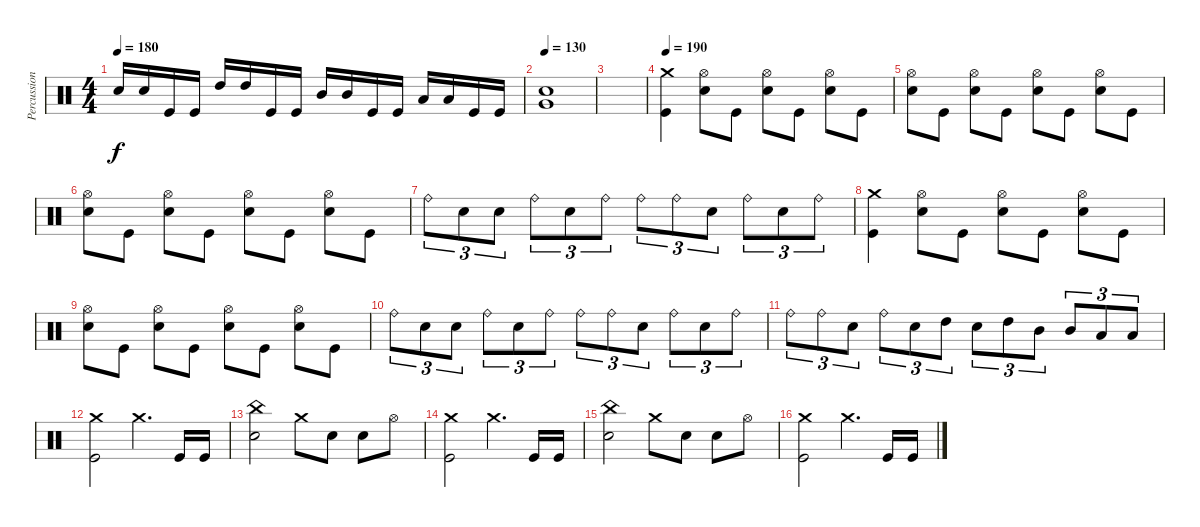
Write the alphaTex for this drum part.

\track ("Percussion" "Percussion") {instrument percussion}
\staff {score}
\articulation defaults
\ts (4 4)
\tempo 180
\clef neutral
\ks c "Snare (hit) 2".16{dy f} "Snare (hit) 2".16 "Kick (hit)".16 "Kick (hit)".16 "High Tom (hit)".16 "High Tom (hit)".16 "Kick (hit)".16 "Kick (hit)".16 "Mid Tom (hit)".16 "Mid Tom (hit)".16 "Kick (hit)".16 "Kick (hit)".16 "Low Tom (hit)".16 "Low Tom (hit)".16 "Kick (hit)".16 "Kick (hit)".16
|
\tempo 130
("Very Low Tom (hit)" "Snare (hit) 2").1 |
|
\tempo 190
("Crash medium (hit)" "Kick (hit)").4 ("Hi-Hat (open)" "Snare (hit) 2").8 "Kick (hit)".8 ("Hi-Hat (open)" "Snare (hit) 2").8 "Kick (hit)".8 ("Hi-Hat (open)" "Snare (hit) 2").8 "Kick (hit)".8 |
("Hi-Hat (open)" "Snare (hit) 2").8 "Kick (hit)".8 ("Hi-Hat (open)" "Snare (hit) 2").8 "Kick (hit)".8 ("Hi-Hat (open)" "Snare (hit) 2").8 "Kick (hit)".8 ("Hi-Hat (open)" "Snare (hit) 2").8 "Kick (hit)".8 |
("Hi-Hat (open)" "Snare (hit) 2").8 "Kick (hit)".8 ("Hi-Hat (open)" "Snare (hit) 2").8 "Kick (hit)".8 ("Hi-Hat (open)" "Snare (hit) 2").8 "Kick (hit)".8 ("Hi-Hat (open)" "Snare (hit) 2").8 "Kick (hit)".8 |
"Ride (bell)".8{tu (3 2) balance 16} "Snare (hit) 2".8{tu (3 2) balance 8} "Snare (hit) 2".8{tu (3 2)} "Ride (bell)".8{tu (3 2) balance 0} "Snare (hit) 2".8{tu (3 2) balance 8} "Ride (bell)".8{tu (3 2) balance 0} "Ride (bell)".8{tu (3 2) balance 16} "Ride (bell)".8{tu (3 2) balance 0} "Snare (hit) 2".8{tu (3 2) balance 8} "Ride (bell)".8{tu (3 2) balance 0} "Snare (hit) 2".8{tu (3 2) balance 8} "Ride (bell)".8{tu (3 2) balance 0} |
("Crash medium (hit)" "Kick (hit)").4{balance 8} ("Hi-Hat (open)" "Snare (hit) 2").8 "Kick (hit)".8 ("Hi-Hat (open)" "Snare (hit) 2").8 "Kick (hit)".8 ("Hi-Hat (open)" "Snare (hit) 2").8 "Kick (hit)".8 |
("Hi-Hat (open)" "Snare (hit) 2").8 "Kick (hit)".8 ("Hi-Hat (open)" "Snare (hit) 2").8 "Kick (hit)".8 ("Hi-Hat (open)" "Snare (hit) 2").8 "Kick (hit)".8 ("Hi-Hat (open)" "Snare (hit) 2").8 "Kick (hit)".8 |
"Ride (bell)".8{tu (3 2) balance 16} "Snare (hit) 2".8{tu (3 2) balance 8} "Snare (hit) 2".8{tu (3 2)} "Ride (bell)".8{tu (3 2) balance 0} "Snare (hit) 2".8{tu (3 2) balance 8} "Ride (bell)".8{tu (3 2) balance 0} "Ride (bell)".8{tu (3 2) balance 16} "Ride (bell)".8{tu (3 2) balance 0} "Snare (hit) 2".8{tu (3 2) balance 8} "Ride (bell)".8{tu (3 2) balance 0} "Snare (hit) 2".8{tu (3 2) balance 8} "Ride (bell)".8{tu (3 2) balance 0} |
"Ride (bell)".8{tu (3 2) balance 16} "Ride (bell)".8{tu (3 2) balance 0} "Snare (hit) 2".8{tu (3 2) balance 8} "Ride (bell)".8{tu (3 2) balance 0} "Snare (hit) 2".8{tu (3 2) balance 8} "High Tom (hit)".8{tu (3 2)} "Snare (hit) 2".8{tu (3 2)} "High Tom (hit)".8{tu (3 2)} "Mid Tom (hit)".8{tu (3 2)} "Mid Tom (hit)".8{tu (3 2)} "Low Tom (hit)".8{tu (3 2)} "Low Tom (hit)".8{tu (3 2)} |
("Crash medium (hit)" "Kick (hit)").2 "Crash medium (hit)".4{d} "Kick (hit)".16 "Kick (hit)".16 |
("China (hit)" "Snare (hit) 2").2 "Crash medium (hit)".8 "Snare (hit) 2".8 "Snare (hit) 2".8 "Hi-Hat (open)".8 |
("Crash medium (hit)" "Kick (hit)").2 "Crash medium (hit)".4{d} "Kick (hit)".16 "Kick (hit)".16 |
("China (hit)" "Snare (hit) 2").2 "Crash medium (hit)".8 "Snare (hit) 2".8 "Snare (hit) 2".8 "Hi-Hat (open)".8 |
("Crash medium (hit)" "Kick (hit)").2 "Crash medium (hit)".4{d} "Kick (hit)".16 "Kick (hit)".16
